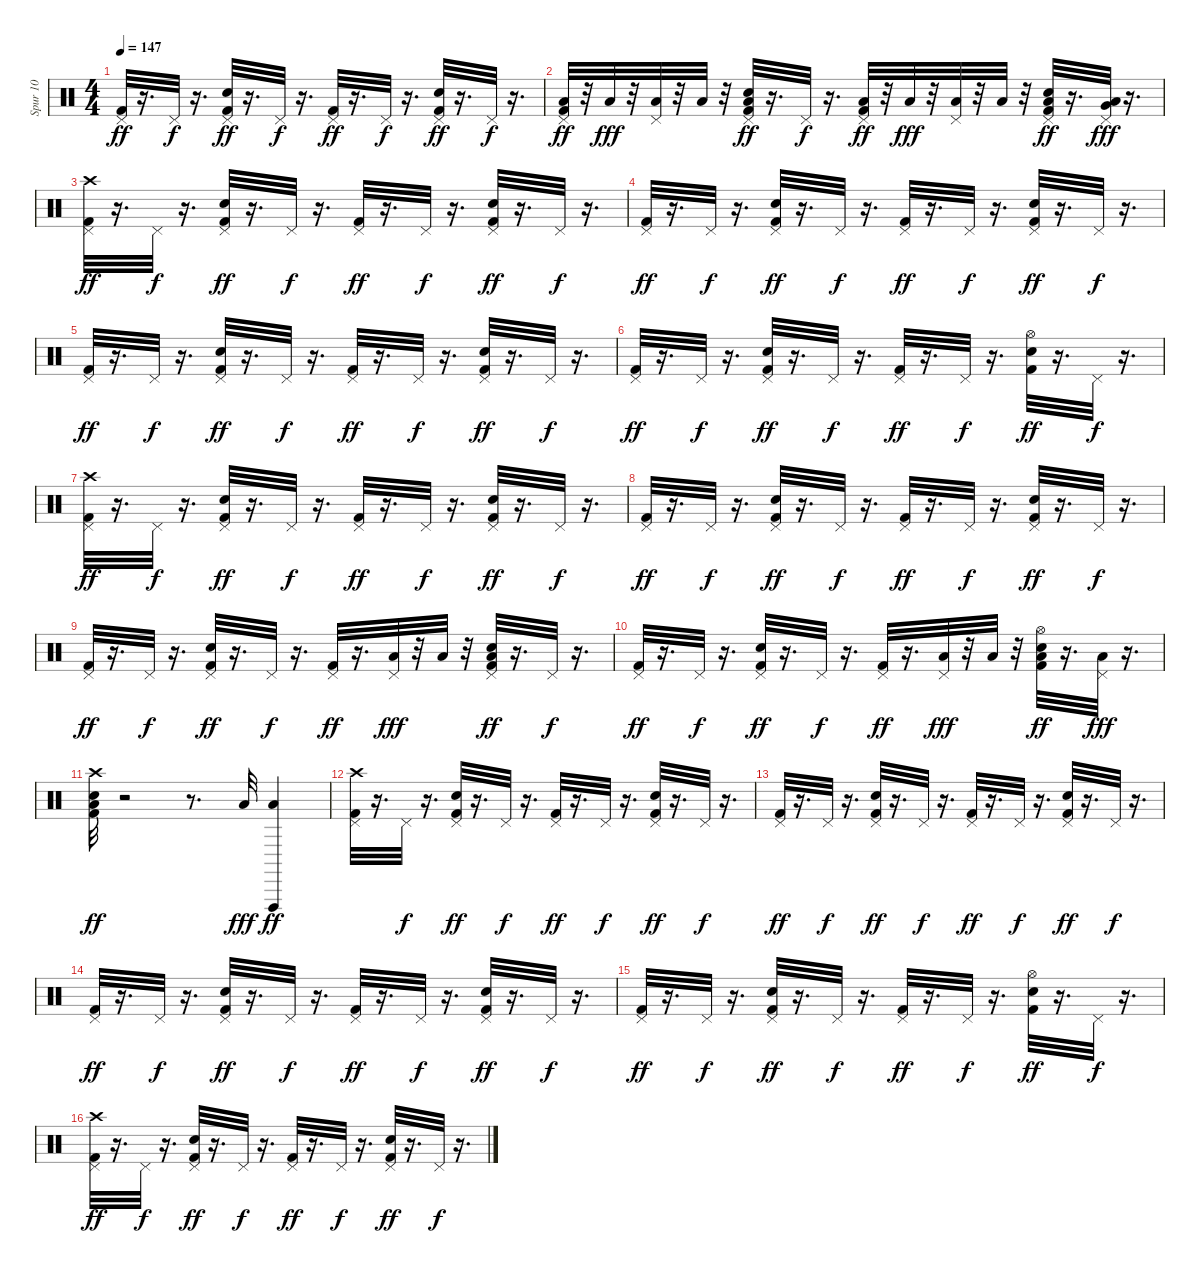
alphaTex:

\track ("Spur 10" "Spur 10") {instrument percussion}
\staff {score}
\articulation defaults
\ts (4 4)
\tempo 147
\clef neutral
\ks c
("Pedal Hi-Hat (hit)" "Kick (hit) 2").32{dy ff} r.16{d} "Pedal Hi-Hat (hit)".32{dy f} r.16{d} ("Snare (hit) 2" "Kick (hit) 2" "Pedal Hi-Hat (hit)").32{dy ff} r.16{d} "Pedal Hi-Hat (hit)".32{dy f} r.16{d} ("Kick (hit) 2" "Pedal Hi-Hat (hit)").32{dy ff} r.16{d} "Pedal Hi-Hat (hit)".32{dy f} r.16{d} ("Snare (hit) 2" "Pedal Hi-Hat (hit)" "Kick (hit) 2").32{dy ff} r.16{d} "Pedal Hi-Hat (hit)".32{dy f} r.16{d} |
("Low Tom (hit)" "Pedal Hi-Hat (hit)" "Kick (hit) 2").32{dy ff} r.32 "Low Tom (hit)".32{dy fff} r.32 ("Low Tom (hit)" "Pedal Hi-Hat (hit)").32 r.32 "Low Tom (hit)".32 r.32 ("Low Tom (hit)" "Snare (hit) 2" "Kick (hit) 2" "Pedal Hi-Hat (hit)").32{dy ff} r.16{d} "Pedal Hi-Hat (hit)".32{dy f} r.16{d} ("Low Floor Tom (hit)" "Kick (hit) 2" "Pedal Hi-Hat (hit)").32{dy ff} r.32 "Low Floor Tom (hit)".32{dy fff} r.32 ("Low Floor Tom (hit)" "Pedal Hi-Hat (hit)").32 r.32 "Low Floor Tom (hit)".32 r.32 ("Low Floor Tom (hit)" "Snare (hit) 2" "Pedal Hi-Hat (hit)" "Kick (hit) 2").32{dy ff} r.16{d} ("Low Floor Tom (hit)" "Very Low Tom (hit)" "Pedal Hi-Hat (hit)").32{dy fff} r.16{d} |
("Pedal Hi-Hat (hit)" "Kick (hit) 2" "Crash high (hit)").32{dy ff} r.16{d} "Pedal Hi-Hat (hit)".32{dy f} r.16{d} ("Snare (hit) 2" "Kick (hit) 2" "Pedal Hi-Hat (hit)").32{dy ff} r.16{d} "Pedal Hi-Hat (hit)".32{dy f} r.16{d} ("Kick (hit) 2" "Pedal Hi-Hat (hit)").32{dy ff} r.16{d} "Pedal Hi-Hat (hit)".32{dy f} r.16{d} ("Snare (hit) 2" "Pedal Hi-Hat (hit)" "Kick (hit) 2").32{dy ff} r.16{d} "Pedal Hi-Hat (hit)".32{dy f} r.16{d} |
("Pedal Hi-Hat (hit)" "Kick (hit) 2").32{dy ff} r.16{d} "Pedal Hi-Hat (hit)".32{dy f} r.16{d} ("Snare (hit) 2" "Kick (hit) 2" "Pedal Hi-Hat (hit)").32{dy ff} r.16{d} "Pedal Hi-Hat (hit)".32{dy f} r.16{d} ("Kick (hit) 2" "Pedal Hi-Hat (hit)").32{dy ff} r.16{d} "Pedal Hi-Hat (hit)".32{dy f} r.16{d} ("Snare (hit) 2" "Pedal Hi-Hat (hit)" "Kick (hit) 2").32{dy ff} r.16{d} "Pedal Hi-Hat (hit)".32{dy f} r.16{d} |
("Pedal Hi-Hat (hit)" "Kick (hit) 2").32{dy ff} r.16{d} "Pedal Hi-Hat (hit)".32{dy f} r.16{d} ("Snare (hit) 2" "Kick (hit) 2" "Pedal Hi-Hat (hit)").32{dy ff} r.16{d} "Pedal Hi-Hat (hit)".32{dy f} r.16{d} ("Kick (hit) 2" "Pedal Hi-Hat (hit)").32{dy ff} r.16{d} "Pedal Hi-Hat (hit)".32{dy f} r.16{d} ("Snare (hit) 2" "Pedal Hi-Hat (hit)" "Kick (hit) 2").32{dy ff} r.16{d} "Pedal Hi-Hat (hit)".32{dy f} r.16{d} |
("Pedal Hi-Hat (hit)" "Kick (hit) 2").32{dy ff} r.16{d} "Pedal Hi-Hat (hit)".32{dy f} r.16{d} ("Snare (hit) 2" "Kick (hit) 2" "Pedal Hi-Hat (hit)").32{dy ff} r.16{d} "Pedal Hi-Hat (hit)".32{dy f} r.16{d} ("Kick (hit) 2" "Pedal Hi-Hat (hit)").32{dy ff} r.16{d} "Pedal Hi-Hat (hit)".32{dy f} r.16{d} ("Snare (hit) 2" "Hi-Hat (open)" "Kick (hit) 2").32{dy ff} r.16{d} "Pedal Hi-Hat (hit)".32{dy f} r.16{d} |
("Pedal Hi-Hat (hit)" "Kick (hit) 2" "Crash high (hit)").32{dy ff} r.16{d} "Pedal Hi-Hat (hit)".32{dy f} r.16{d} ("Snare (hit) 2" "Kick (hit) 2" "Pedal Hi-Hat (hit)").32{dy ff} r.16{d} "Pedal Hi-Hat (hit)".32{dy f} r.16{d} ("Kick (hit) 2" "Pedal Hi-Hat (hit)").32{dy ff} r.16{d} "Pedal Hi-Hat (hit)".32{dy f} r.16{d} ("Snare (hit) 2" "Pedal Hi-Hat (hit)" "Kick (hit) 2").32{dy ff} r.16{d} "Pedal Hi-Hat (hit)".32{dy f} r.16{d} |
("Pedal Hi-Hat (hit)" "Kick (hit) 2").32{dy ff} r.16{d} "Pedal Hi-Hat (hit)".32{dy f} r.16{d} ("Snare (hit) 2" "Kick (hit) 2" "Pedal Hi-Hat (hit)").32{dy ff} r.16{d} "Pedal Hi-Hat (hit)".32{dy f} r.16{d} ("Kick (hit) 2" "Pedal Hi-Hat (hit)").32{dy ff} r.16{d} "Pedal Hi-Hat (hit)".32{dy f} r.16{d} ("Snare (hit) 2" "Pedal Hi-Hat (hit)" "Kick (hit) 2").32{dy ff} r.16{d} "Pedal Hi-Hat (hit)".32{dy f} r.16{d} |
("Pedal Hi-Hat (hit)" "Kick (hit) 2").32{dy ff} r.16{d} "Pedal Hi-Hat (hit)".32{dy f} r.16{d} ("Snare (hit) 2" "Kick (hit) 2" "Pedal Hi-Hat (hit)").32{dy ff} r.16{d} "Pedal Hi-Hat (hit)".32{dy f} r.16{d} ("Kick (hit) 2" "Pedal Hi-Hat (hit)").32{dy ff} r.16{d} ("Low Tom (hit)" "Pedal Hi-Hat (hit)").32{dy fff} r.32 "Low Tom (hit)".32 r.32 ("Low Tom (hit)" "Snare (hit) 2" "Pedal Hi-Hat (hit)" "Kick (hit) 2").32{dy ff} r.16{d} "Pedal Hi-Hat (hit)".32{dy f} r.16{d} |
("Pedal Hi-Hat (hit)" "Kick (hit) 2").32{dy ff} r.16{d} "Pedal Hi-Hat (hit)".32{dy f} r.16{d} ("Snare (hit) 2" "Kick (hit) 2" "Pedal Hi-Hat (hit)").32{dy ff} r.16{d} "Pedal Hi-Hat (hit)".32{dy f} r.16{d} ("Kick (hit) 2" "Pedal Hi-Hat (hit)").32{dy ff} r.16{d} ("Low Tom (hit)" "Pedal Hi-Hat (hit)").32{dy fff} r.32 "Low Tom (hit)".32 r.32 ("Low Tom (hit)" "Snare (hit) 2" "Hi-Hat (open)" "Kick (hit) 2").32{dy ff} r.16{d} ("Low Floor Tom (hit)" "Pedal Hi-Hat (hit)").32{dy fff} r.16{d} |
("Low Floor Tom (hit)" "Snare (hit) 2" "Crash high (hit)" "Kick (hit) 2").32{dy ff} r.2 r.8{d} "Low Floor Tom (hit)".32{dy fff} ("Low Tom (hit)" "Vibraslap (hit)").4{dy ff} |
("Pedal Hi-Hat (hit)" "Kick (hit) 2" "Crash high (hit)").32 r.16{d} "Pedal Hi-Hat (hit)".32{dy f} r.16{d} ("Snare (hit) 2" "Kick (hit) 2" "Pedal Hi-Hat (hit)").32{dy ff} r.16{d} "Pedal Hi-Hat (hit)".32{dy f} r.16{d} ("Kick (hit) 2" "Pedal Hi-Hat (hit)").32{dy ff} r.16{d} "Pedal Hi-Hat (hit)".32{dy f} r.16{d} ("Snare (hit) 2" "Pedal Hi-Hat (hit)" "Kick (hit) 2").32{dy ff} r.16{d} "Pedal Hi-Hat (hit)".32{dy f} r.16{d} |
("Pedal Hi-Hat (hit)" "Kick (hit) 2").32{dy ff} r.16{d} "Pedal Hi-Hat (hit)".32{dy f} r.16{d} ("Snare (hit) 2" "Kick (hit) 2" "Pedal Hi-Hat (hit)").32{dy ff} r.16{d} "Pedal Hi-Hat (hit)".32{dy f} r.16{d} ("Kick (hit) 2" "Pedal Hi-Hat (hit)").32{dy ff} r.16{d} "Pedal Hi-Hat (hit)".32{dy f} r.16{d} ("Snare (hit) 2" "Pedal Hi-Hat (hit)" "Kick (hit) 2").32{dy ff} r.16{d} "Pedal Hi-Hat (hit)".32{dy f} r.16{d} |
("Pedal Hi-Hat (hit)" "Kick (hit) 2").32{dy ff} r.16{d} "Pedal Hi-Hat (hit)".32{dy f} r.16{d} ("Snare (hit) 2" "Kick (hit) 2" "Pedal Hi-Hat (hit)").32{dy ff} r.16{d} "Pedal Hi-Hat (hit)".32{dy f} r.16{d} ("Kick (hit) 2" "Pedal Hi-Hat (hit)").32{dy ff} r.16{d} "Pedal Hi-Hat (hit)".32{dy f} r.16{d} ("Snare (hit) 2" "Pedal Hi-Hat (hit)" "Kick (hit) 2").32{dy ff} r.16{d} "Pedal Hi-Hat (hit)".32{dy f} r.16{d} |
("Pedal Hi-Hat (hit)" "Kick (hit) 2").32{dy ff} r.16{d} "Pedal Hi-Hat (hit)".32{dy f} r.16{d} ("Snare (hit) 2" "Kick (hit) 2" "Pedal Hi-Hat (hit)").32{dy ff} r.16{d} "Pedal Hi-Hat (hit)".32{dy f} r.16{d} ("Kick (hit) 2" "Pedal Hi-Hat (hit)").32{dy ff} r.16{d} "Pedal Hi-Hat (hit)".32{dy f} r.16{d} ("Snare (hit) 2" "Hi-Hat (open)" "Kick (hit) 2").32{dy ff} r.16{d} "Pedal Hi-Hat (hit)".32{dy f} r.16{d} |
("Pedal Hi-Hat (hit)" "Kick (hit) 2" "Crash high (hit)").32{dy ff} r.16{d} "Pedal Hi-Hat (hit)".32{dy f} r.16{d} ("Snare (hit) 2" "Kick (hit) 2" "Pedal Hi-Hat (hit)").32{dy ff} r.16{d} "Pedal Hi-Hat (hit)".32{dy f} r.16{d} ("Kick (hit) 2" "Pedal Hi-Hat (hit)").32{dy ff} r.16{d} "Pedal Hi-Hat (hit)".32{dy f} r.16{d} ("Snare (hit) 2" "Pedal Hi-Hat (hit)" "Kick (hit) 2").32{dy ff} r.16{d} "Pedal Hi-Hat (hit)".32{dy f} r.16{d}
